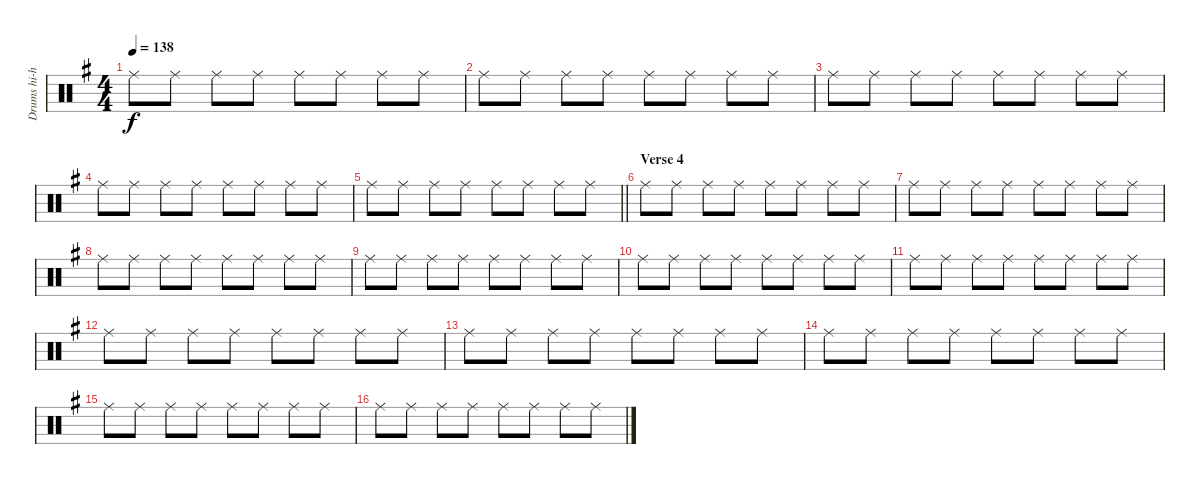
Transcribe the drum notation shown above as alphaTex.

\track ("Drums hi-hat" "Drums hi-h") {instrument percussion}
\staff {score}
\articulation defaults
\ts (4 4)
\tempo 138
\clef neutral
\ks g "Ride (middle)".8{dy f} "Ride (middle)".8 "Ride (middle)".8 "Ride (middle)".8 "Ride (middle)".8 "Ride (middle)".8 "Ride (middle)".8 "Ride (middle)".8
|
"Ride (middle)".8 "Ride (middle)".8 "Ride (middle)".8 "Ride (middle)".8 "Ride (middle)".8 "Ride (middle)".8 "Ride (middle)".8 "Ride (middle)".8 |
"Ride (middle)".8 "Ride (middle)".8 "Ride (middle)".8 "Ride (middle)".8 "Ride (middle)".8 "Ride (middle)".8 "Ride (middle)".8 "Ride (middle)".8 |
"Ride (middle)".8 "Ride (middle)".8 "Ride (middle)".8 "Ride (middle)".8 "Ride (middle)".8 "Ride (middle)".8 "Ride (middle)".8 "Ride (middle)".8 |
\barLineRight lightlight "Ride (middle)".8 "Ride (middle)".8 "Ride (middle)".8 "Ride (middle)".8 "Ride (middle)".8 "Ride (middle)".8 "Ride (middle)".8 "Ride (middle)".8
|
\section ("" "Verse 4")
"Ride (middle)".8 "Ride (middle)".8 "Ride (middle)".8 "Ride (middle)".8 "Ride (middle)".8 "Ride (middle)".8 "Ride (middle)".8 "Ride (middle)".8 |
"Ride (middle)".8 "Ride (middle)".8 "Ride (middle)".8 "Ride (middle)".8 "Ride (middle)".8 "Ride (middle)".8 "Ride (middle)".8 "Ride (middle)".8 |
"Ride (middle)".8 "Ride (middle)".8 "Ride (middle)".8 "Ride (middle)".8 "Ride (middle)".8 "Ride (middle)".8 "Ride (middle)".8 "Ride (middle)".8 |
"Ride (middle)".8 "Ride (middle)".8 "Ride (middle)".8 "Ride (middle)".8 "Ride (middle)".8 "Ride (middle)".8 "Ride (middle)".8 "Ride (middle)".8 |
"Ride (middle)".8 "Ride (middle)".8 "Ride (middle)".8 "Ride (middle)".8 "Ride (middle)".8 "Ride (middle)".8 "Ride (middle)".8 "Ride (middle)".8 |
"Ride (middle)".8 "Ride (middle)".8 "Ride (middle)".8 "Ride (middle)".8 "Ride (middle)".8 "Ride (middle)".8 "Ride (middle)".8 "Ride (middle)".8 |
"Ride (middle)".8 "Ride (middle)".8 "Ride (middle)".8 "Ride (middle)".8 "Ride (middle)".8 "Ride (middle)".8 "Ride (middle)".8 "Ride (middle)".8 |
"Ride (middle)".8 "Ride (middle)".8 "Ride (middle)".8 "Ride (middle)".8 "Ride (middle)".8 "Ride (middle)".8 "Ride (middle)".8 "Ride (middle)".8 |
"Ride (middle)".8 "Ride (middle)".8 "Ride (middle)".8 "Ride (middle)".8 "Ride (middle)".8 "Ride (middle)".8 "Ride (middle)".8 "Ride (middle)".8 |
"Ride (middle)".8 "Ride (middle)".8 "Ride (middle)".8 "Ride (middle)".8 "Ride (middle)".8 "Ride (middle)".8 "Ride (middle)".8 "Ride (middle)".8 |
"Ride (middle)".8 "Ride (middle)".8 "Ride (middle)".8 "Ride (middle)".8 "Ride (middle)".8 "Ride (middle)".8 "Ride (middle)".8 "Ride (middle)".8
